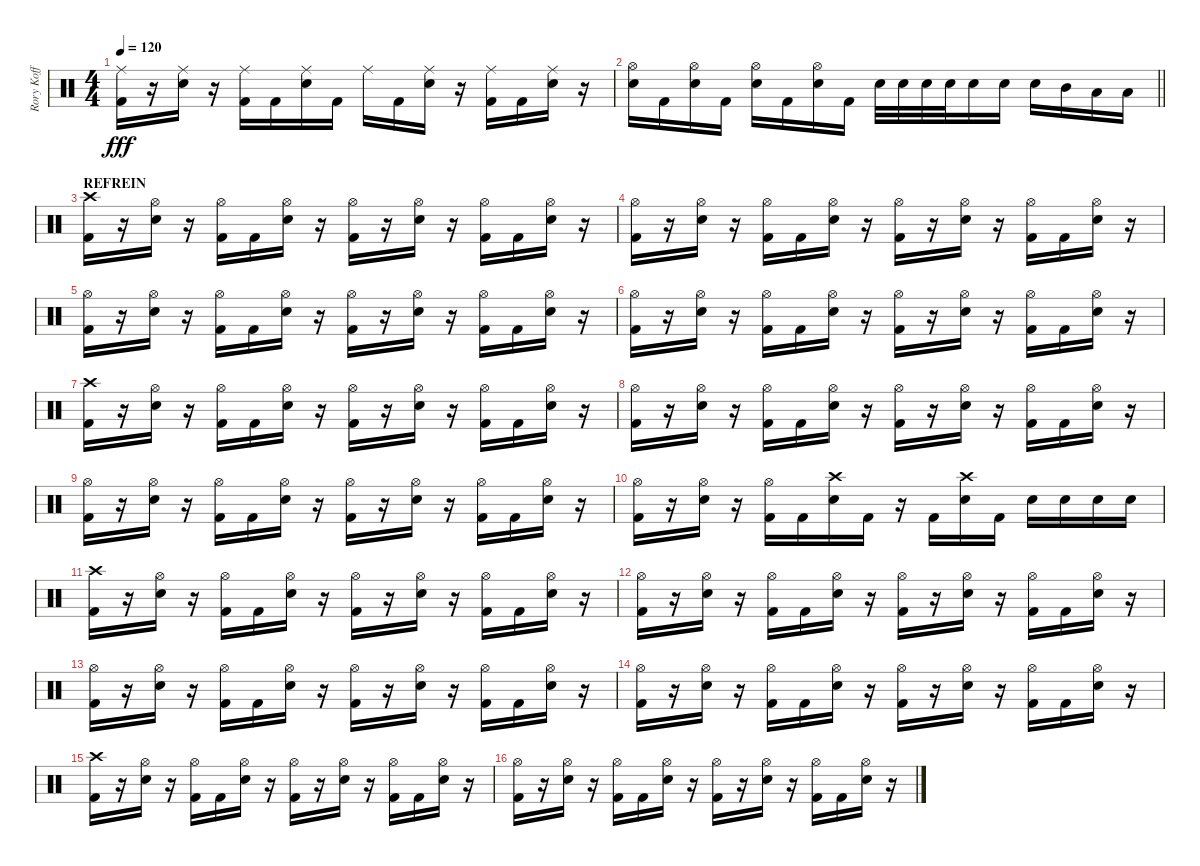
\track ("Rory Koff" "Rory Koff") {instrument percussion}
\staff {score}
\articulation defaults
\ts (4 4)
\tempo 120
\clef neutral
\ks c
("Ride (middle)" "Kick (hit) 2").16{dy fff} r.16 ("Ride (middle)" "Snare (hit) 2").16 r.16 ("Ride (middle)" "Kick (hit) 2").16 "Kick (hit) 2".16 ("Ride (middle)" "Snare (hit) 2").16 "Kick (hit) 2".16 "Ride (middle)".16 "Kick (hit) 2".16 ("Ride (middle)" "Snare (hit) 2").16 r.16 ("Ride (middle)" "Kick (hit) 2").16 "Kick (hit) 2".16 ("Ride (middle)" "Snare (hit) 2").16 r.16 |
\barLineRight lightlight
("Hi-Hat (open)" "Snare (hit) 2").16 "Kick (hit) 2".16 ("Hi-Hat (open)" "Snare (hit) 2").16 "Kick (hit) 2".16 ("Hi-Hat (open)" "Snare (hit) 2").16 "Kick (hit) 2".16 ("Hi-Hat (open)" "Snare (hit) 2").16 "Kick (hit) 2".16 "Snare (hit) 2".32 "Snare (hit) 2".32 "Snare (hit) 2".32 "Snare (hit) 2".32 "Snare (hit) 2".16 "Snare (hit) 2".16 "Snare (hit) 2".16 "Mid Tom (hit)".16 "Low Tom (hit)".16 "Low Floor Tom (hit)".16 |
\section ("" "REFREIN")
("Crash high (hit)" "Kick (hit) 2").16 r.16 ("Hi-Hat (open)" "Snare (hit) 2").16 r.16 ("Hi-Hat (open)" "Kick (hit) 2").16 "Kick (hit) 2".16 ("Hi-Hat (open)" "Snare (hit) 2").16 r.16 ("Hi-Hat (open)" "Kick (hit) 2").16 r.16 ("Hi-Hat (open)" "Snare (hit) 2").16 r.16 ("Hi-Hat (open)" "Kick (hit) 2").16 "Kick (hit) 2".16 ("Hi-Hat (open)" "Snare (hit) 2").16 r.16 |
("Hi-Hat (open)" "Kick (hit) 2").16 r.16 ("Hi-Hat (open)" "Snare (hit) 2").16 r.16 ("Hi-Hat (open)" "Kick (hit) 2").16 "Kick (hit) 2".16 ("Hi-Hat (open)" "Snare (hit) 2").16 r.16 ("Hi-Hat (open)" "Kick (hit) 2").16 r.16 ("Hi-Hat (open)" "Snare (hit) 2").16 r.16 ("Hi-Hat (open)" "Kick (hit) 2").16 "Kick (hit) 2".16 ("Hi-Hat (open)" "Snare (hit) 2").16 r.16 |
("Hi-Hat (open)" "Kick (hit) 2").16 r.16 ("Hi-Hat (open)" "Snare (hit) 2").16 r.16 ("Hi-Hat (open)" "Kick (hit) 2").16 "Kick (hit) 2".16 ("Hi-Hat (open)" "Snare (hit) 2").16 r.16 ("Hi-Hat (open)" "Kick (hit) 2").16 r.16 ("Hi-Hat (open)" "Snare (hit) 2").16 r.16 ("Hi-Hat (open)" "Kick (hit) 2").16 "Kick (hit) 2".16 ("Hi-Hat (open)" "Snare (hit) 2").16 r.16 |
("Hi-Hat (open)" "Kick (hit) 2").16 r.16 ("Hi-Hat (open)" "Snare (hit) 2").16 r.16 ("Hi-Hat (open)" "Kick (hit) 2").16 "Kick (hit) 2".16 ("Hi-Hat (open)" "Snare (hit) 2").16 r.16 ("Hi-Hat (open)" "Kick (hit) 2").16 r.16 ("Hi-Hat (open)" "Snare (hit) 2").16 r.16 ("Hi-Hat (open)" "Kick (hit) 2").16 "Kick (hit) 2".16 ("Hi-Hat (open)" "Snare (hit) 2").16 r.16 |
("Crash high (hit)" "Kick (hit) 2").16 r.16 ("Hi-Hat (open)" "Snare (hit) 2").16 r.16 ("Hi-Hat (open)" "Kick (hit) 2").16 "Kick (hit) 2".16 ("Hi-Hat (open)" "Snare (hit) 2").16 r.16 ("Hi-Hat (open)" "Kick (hit) 2").16 r.16 ("Hi-Hat (open)" "Snare (hit) 2").16 r.16 ("Hi-Hat (open)" "Kick (hit) 2").16 "Kick (hit) 2".16 ("Hi-Hat (open)" "Snare (hit) 2").16 r.16 |
("Hi-Hat (open)" "Kick (hit) 2").16 r.16 ("Hi-Hat (open)" "Snare (hit) 2").16 r.16 ("Hi-Hat (open)" "Kick (hit) 2").16 "Kick (hit) 2".16 ("Hi-Hat (open)" "Snare (hit) 2").16 r.16 ("Hi-Hat (open)" "Kick (hit) 2").16 r.16 ("Hi-Hat (open)" "Snare (hit) 2").16 r.16 ("Hi-Hat (open)" "Kick (hit) 2").16 "Kick (hit) 2".16 ("Hi-Hat (open)" "Snare (hit) 2").16 r.16 |
("Hi-Hat (open)" "Kick (hit) 2").16 r.16 ("Hi-Hat (open)" "Snare (hit) 2").16 r.16 ("Hi-Hat (open)" "Kick (hit) 2").16 "Kick (hit) 2".16 ("Hi-Hat (open)" "Snare (hit) 2").16 r.16 ("Hi-Hat (open)" "Kick (hit) 2").16 r.16 ("Hi-Hat (open)" "Snare (hit) 2").16 r.16 ("Hi-Hat (open)" "Kick (hit) 2").16 "Kick (hit) 2".16 ("Hi-Hat (open)" "Snare (hit) 2").16 r.16 |
("Hi-Hat (open)" "Kick (hit) 2").16 r.16 ("Hi-Hat (open)" "Snare (hit) 2").16 r.16 ("Hi-Hat (open)" "Kick (hit) 2").16 "Kick (hit) 2".16 ("Crash high (hit)" "Snare (hit) 2").16 "Kick (hit) 2".16 r.16 "Kick (hit) 2".16 ("Crash high (hit)" "Snare (hit) 2").16 "Kick (hit) 2".16 "Snare (hit) 2".16 "Snare (hit) 2".16 "Snare (hit) 2".16 "Snare (hit) 2".16 |
("Crash high (hit)" "Kick (hit) 2").16 r.16 ("Hi-Hat (open)" "Snare (hit) 2").16 r.16 ("Hi-Hat (open)" "Kick (hit) 2").16 "Kick (hit) 2".16 ("Hi-Hat (open)" "Snare (hit) 2").16 r.16 ("Hi-Hat (open)" "Kick (hit) 2").16 r.16 ("Hi-Hat (open)" "Snare (hit) 2").16 r.16 ("Hi-Hat (open)" "Kick (hit) 2").16 "Kick (hit) 2".16 ("Hi-Hat (open)" "Snare (hit) 2").16 r.16 |
("Hi-Hat (open)" "Kick (hit) 2").16 r.16 ("Hi-Hat (open)" "Snare (hit) 2").16 r.16 ("Hi-Hat (open)" "Kick (hit) 2").16 "Kick (hit) 2".16 ("Hi-Hat (open)" "Snare (hit) 2").16 r.16 ("Hi-Hat (open)" "Kick (hit) 2").16 r.16 ("Hi-Hat (open)" "Snare (hit) 2").16 r.16 ("Hi-Hat (open)" "Kick (hit) 2").16 "Kick (hit) 2".16 ("Hi-Hat (open)" "Snare (hit) 2").16 r.16 |
("Hi-Hat (open)" "Kick (hit) 2").16 r.16 ("Hi-Hat (open)" "Snare (hit) 2").16 r.16 ("Hi-Hat (open)" "Kick (hit) 2").16 "Kick (hit) 2".16 ("Hi-Hat (open)" "Snare (hit) 2").16 r.16 ("Hi-Hat (open)" "Kick (hit) 2").16 r.16 ("Hi-Hat (open)" "Snare (hit) 2").16 r.16 ("Hi-Hat (open)" "Kick (hit) 2").16 "Kick (hit) 2".16 ("Hi-Hat (open)" "Snare (hit) 2").16 r.16 |
("Hi-Hat (open)" "Kick (hit) 2").16 r.16 ("Hi-Hat (open)" "Snare (hit) 2").16 r.16 ("Hi-Hat (open)" "Kick (hit) 2").16 "Kick (hit) 2".16 ("Hi-Hat (open)" "Snare (hit) 2").16 r.16 ("Hi-Hat (open)" "Kick (hit) 2").16 r.16 ("Hi-Hat (open)" "Snare (hit) 2").16 r.16 ("Hi-Hat (open)" "Kick (hit) 2").16 "Kick (hit) 2".16 ("Hi-Hat (open)" "Snare (hit) 2").16 r.16 |
("Crash high (hit)" "Kick (hit) 2").16 r.16 ("Hi-Hat (open)" "Snare (hit) 2").16 r.16 ("Hi-Hat (open)" "Kick (hit) 2").16 "Kick (hit) 2".16 ("Hi-Hat (open)" "Snare (hit) 2").16 r.16 ("Hi-Hat (open)" "Kick (hit) 2").16 r.16 ("Hi-Hat (open)" "Snare (hit) 2").16 r.16 ("Hi-Hat (open)" "Kick (hit) 2").16 "Kick (hit) 2".16 ("Hi-Hat (open)" "Snare (hit) 2").16 r.16 |
("Hi-Hat (open)" "Kick (hit) 2").16 r.16 ("Hi-Hat (open)" "Snare (hit) 2").16 r.16 ("Hi-Hat (open)" "Kick (hit) 2").16 "Kick (hit) 2".16 ("Hi-Hat (open)" "Snare (hit) 2").16 r.16 ("Hi-Hat (open)" "Kick (hit) 2").16 r.16 ("Hi-Hat (open)" "Snare (hit) 2").16 r.16 ("Hi-Hat (open)" "Kick (hit) 2").16 "Kick (hit) 2".16 ("Hi-Hat (open)" "Snare (hit) 2").16 r.16
